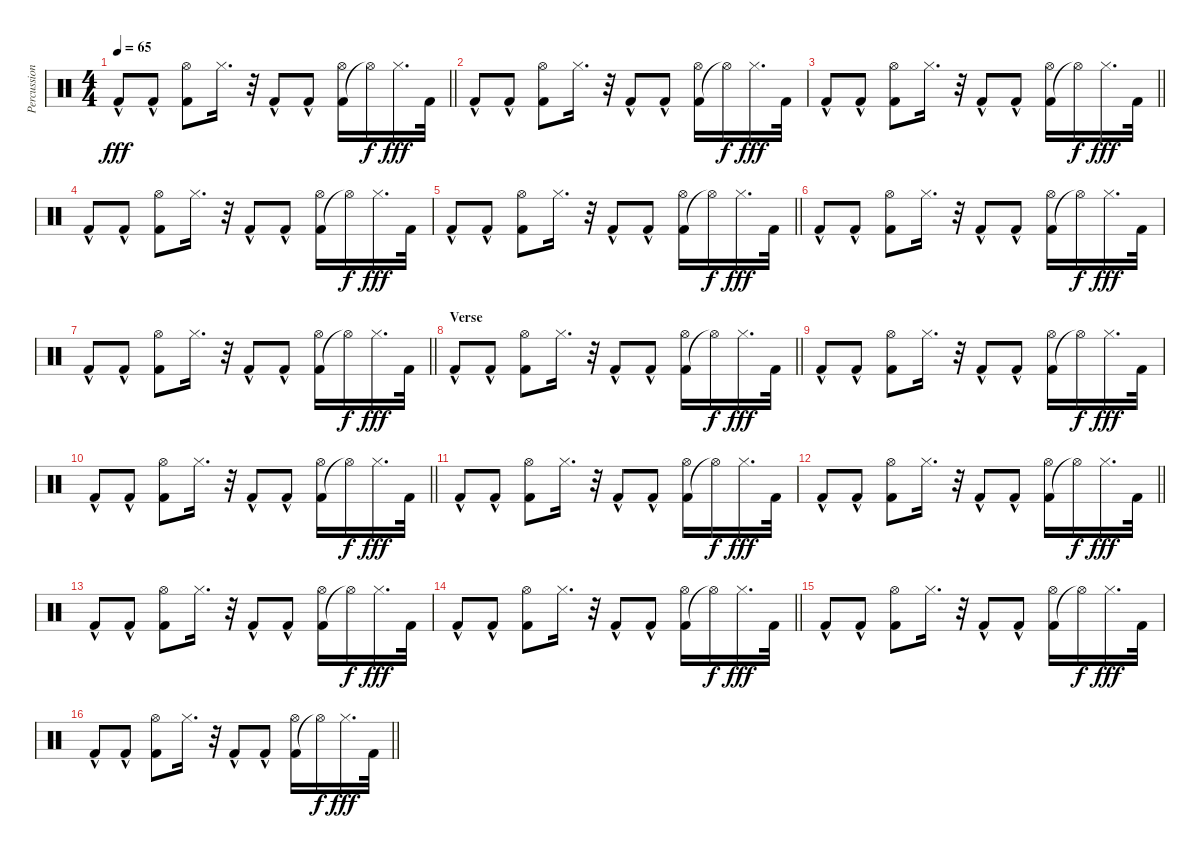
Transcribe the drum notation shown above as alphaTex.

\track ("Percussion" "Percussion") {instrument percussion}
\staff {score}
\articulation defaults
\ts (4 4)
\tempo 65
\clef neutral
\barLineRight lightlight
\ks c "Kick (hit) 2"{hac}.8{dy fff} "Kick (hit) 2"{hac}.8
("Kick (hit) 2" "Hi-Hat (open)").8 "Hi-Hat (closed)".16{d} r.32 "Kick (hit) 2"{hac}.8 "Kick (hit) 2"{hac}.8 ("Kick (hit) 2" "Hi-Hat (open)").16 "Hi-Hat (open)"{t}.16{dy f} "Hi-Hat (closed)".16{d dy fff} "Kick (hit) 2".32 |
"Kick (hit) 2"{hac}.8 "Kick (hit) 2"{hac}.8 ("Kick (hit) 2" "Hi-Hat (open)").8 "Hi-Hat (closed)".16{d} r.32 "Kick (hit) 2"{hac}.8 "Kick (hit) 2"{hac}.8 ("Kick (hit) 2" "Hi-Hat (open)").16 "Hi-Hat (open)"{t}.16{dy f} "Hi-Hat (closed)".16{d dy fff} "Kick (hit) 2".32 |
\barLineRight lightlight "Kick (hit) 2"{hac}.8 "Kick (hit) 2"{hac}.8
("Kick (hit) 2" "Hi-Hat (open)").8 "Hi-Hat (closed)".16{d} r.32 "Kick (hit) 2"{hac}.8 "Kick (hit) 2"{hac}.8 ("Kick (hit) 2" "Hi-Hat (open)").16 "Hi-Hat (open)"{t}.16{dy f} "Hi-Hat (closed)".16{d dy fff} "Kick (hit) 2".32 |
"Kick (hit) 2"{hac}.8 "Kick (hit) 2"{hac}.8 ("Kick (hit) 2" "Hi-Hat (open)").8 "Hi-Hat (closed)".16{d} r.32 "Kick (hit) 2"{hac}.8 "Kick (hit) 2"{hac}.8 ("Kick (hit) 2" "Hi-Hat (open)").16 "Hi-Hat (open)"{t}.16{dy f} "Hi-Hat (closed)".16{d dy fff} "Kick (hit) 2".32 |
\barLineRight lightlight "Kick (hit) 2"{hac}.8 "Kick (hit) 2"{hac}.8
("Kick (hit) 2" "Hi-Hat (open)").8 "Hi-Hat (closed)".16{d} r.32 "Kick (hit) 2"{hac}.8 "Kick (hit) 2"{hac}.8 ("Kick (hit) 2" "Hi-Hat (open)").16 "Hi-Hat (open)"{t}.16{dy f} "Hi-Hat (closed)".16{d dy fff} "Kick (hit) 2".32 |
"Kick (hit) 2"{hac}.8 "Kick (hit) 2"{hac}.8 ("Kick (hit) 2" "Hi-Hat (open)").8 "Hi-Hat (closed)".16{d} r.32 "Kick (hit) 2"{hac}.8 "Kick (hit) 2"{hac}.8 ("Kick (hit) 2" "Hi-Hat (open)").16 "Hi-Hat (open)"{t}.16{dy f} "Hi-Hat (closed)".16{d dy fff} "Kick (hit) 2".32 |
\barLineRight lightlight "Kick (hit) 2"{hac}.8 "Kick (hit) 2"{hac}.8
("Kick (hit) 2" "Hi-Hat (open)").8 "Hi-Hat (closed)".16{d} r.32 "Kick (hit) 2"{hac}.8 "Kick (hit) 2"{hac}.8 ("Kick (hit) 2" "Hi-Hat (open)").16 "Hi-Hat (open)"{t}.16{dy f} "Hi-Hat (closed)".16{d dy fff} "Kick (hit) 2".32 |
\section ("" "Verse")
\barLineRight lightlight "Kick (hit) 2"{hac}.8 "Kick (hit) 2"{hac}.8
("Kick (hit) 2" "Hi-Hat (open)").8 "Hi-Hat (closed)".16{d} r.32 "Kick (hit) 2"{hac}.8 "Kick (hit) 2"{hac}.8 ("Kick (hit) 2" "Hi-Hat (open)").16 "Hi-Hat (open)"{t}.16{dy f} "Hi-Hat (closed)".16{d dy fff} "Kick (hit) 2".32 |
"Kick (hit) 2"{hac}.8 "Kick (hit) 2"{hac}.8 ("Kick (hit) 2" "Hi-Hat (open)").8 "Hi-Hat (closed)".16{d} r.32 "Kick (hit) 2"{hac}.8 "Kick (hit) 2"{hac}.8 ("Kick (hit) 2" "Hi-Hat (open)").16 "Hi-Hat (open)"{t}.16{dy f} "Hi-Hat (closed)".16{d dy fff} "Kick (hit) 2".32 |
\barLineRight lightlight "Kick (hit) 2"{hac}.8 "Kick (hit) 2"{hac}.8
("Kick (hit) 2" "Hi-Hat (open)").8 "Hi-Hat (closed)".16{d} r.32 "Kick (hit) 2"{hac}.8 "Kick (hit) 2"{hac}.8 ("Kick (hit) 2" "Hi-Hat (open)").16 "Hi-Hat (open)"{t}.16{dy f} "Hi-Hat (closed)".16{d dy fff} "Kick (hit) 2".32 |
"Kick (hit) 2"{hac}.8 "Kick (hit) 2"{hac}.8 ("Kick (hit) 2" "Hi-Hat (open)").8 "Hi-Hat (closed)".16{d} r.32 "Kick (hit) 2"{hac}.8 "Kick (hit) 2"{hac}.8 ("Kick (hit) 2" "Hi-Hat (open)").16 "Hi-Hat (open)"{t}.16{dy f} "Hi-Hat (closed)".16{d dy fff} "Kick (hit) 2".32 |
\barLineRight lightlight "Kick (hit) 2"{hac}.8 "Kick (hit) 2"{hac}.8
("Kick (hit) 2" "Hi-Hat (open)").8 "Hi-Hat (closed)".16{d} r.32 "Kick (hit) 2"{hac}.8 "Kick (hit) 2"{hac}.8 ("Kick (hit) 2" "Hi-Hat (open)").16 "Hi-Hat (open)"{t}.16{dy f} "Hi-Hat (closed)".16{d dy fff} "Kick (hit) 2".32 |
"Kick (hit) 2"{hac}.8 "Kick (hit) 2"{hac}.8 ("Kick (hit) 2" "Hi-Hat (open)").8 "Hi-Hat (closed)".16{d} r.32 "Kick (hit) 2"{hac}.8 "Kick (hit) 2"{hac}.8 ("Kick (hit) 2" "Hi-Hat (open)").16 "Hi-Hat (open)"{t}.16{dy f} "Hi-Hat (closed)".16{d dy fff} "Kick (hit) 2".32 |
\barLineRight lightlight "Kick (hit) 2"{hac}.8 "Kick (hit) 2"{hac}.8
("Kick (hit) 2" "Hi-Hat (open)").8 "Hi-Hat (closed)".16{d} r.32 "Kick (hit) 2"{hac}.8 "Kick (hit) 2"{hac}.8 ("Kick (hit) 2" "Hi-Hat (open)").16 "Hi-Hat (open)"{t}.16{dy f} "Hi-Hat (closed)".16{d dy fff} "Kick (hit) 2".32 |
"Kick (hit) 2"{hac}.8 "Kick (hit) 2"{hac}.8 ("Kick (hit) 2" "Hi-Hat (open)").8 "Hi-Hat (closed)".16{d} r.32 "Kick (hit) 2"{hac}.8 "Kick (hit) 2"{hac}.8 ("Kick (hit) 2" "Hi-Hat (open)").16 "Hi-Hat (open)"{t}.16{dy f} "Hi-Hat (closed)".16{d dy fff} "Kick (hit) 2".32 |
\barLineRight lightlight "Kick (hit) 2"{hac}.8 "Kick (hit) 2"{hac}.8
("Kick (hit) 2" "Hi-Hat (open)").8 "Hi-Hat (closed)".16{d} r.32 "Kick (hit) 2"{hac}.8 "Kick (hit) 2"{hac}.8 ("Kick (hit) 2" "Hi-Hat (open)").16 "Hi-Hat (open)"{t}.16{dy f} "Hi-Hat (closed)".16{d dy fff} "Kick (hit) 2".32
